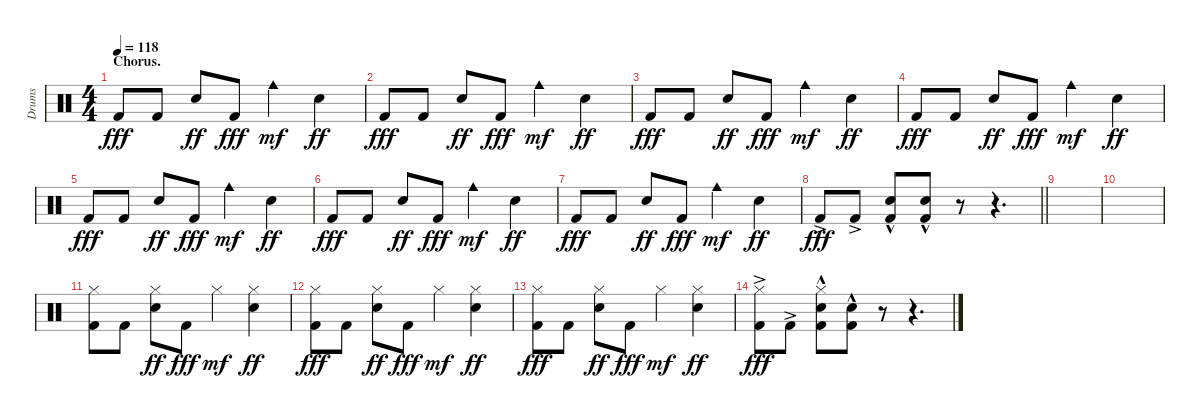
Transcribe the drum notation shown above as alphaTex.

\track ("Drums" "Drums") {instrument percussion}
\staff {score}
\articulation defaults
\ts (4 4)
\section ("" "Chorus.")
\tempo 118
\clef neutral
\ks c "Kick (hit) 2".8{dy fff} "Kick (hit) 2".8 "Snare (hit) 2".8{dy ff} "Kick (hit) 2".8{dy fff} "Cowbell medium (hit)".4{dy mf} "Snare (hit) 2".4{dy ff}
|
"Kick (hit) 2".8{dy fff} "Kick (hit) 2".8 "Snare (hit) 2".8{dy ff} "Kick (hit) 2".8{dy fff} "Cowbell medium (hit)".4{dy mf} "Snare (hit) 2".4{dy ff} |
"Kick (hit) 2".8{dy fff} "Kick (hit) 2".8 "Snare (hit) 2".8{dy ff} "Kick (hit) 2".8{dy fff} "Cowbell medium (hit)".4{dy mf} "Snare (hit) 2".4{dy ff} |
"Kick (hit) 2".8{dy fff} "Kick (hit) 2".8 "Snare (hit) 2".8{dy ff} "Kick (hit) 2".8{dy fff} "Cowbell medium (hit)".4{dy mf} "Snare (hit) 2".4{dy ff} |
"Kick (hit) 2".8{dy fff} "Kick (hit) 2".8 "Snare (hit) 2".8{dy ff} "Kick (hit) 2".8{dy fff} "Cowbell medium (hit)".4{dy mf} "Snare (hit) 2".4{dy ff} |
"Kick (hit) 2".8{dy fff} "Kick (hit) 2".8 "Snare (hit) 2".8{dy ff} "Kick (hit) 2".8{dy fff} "Cowbell medium (hit)".4{dy mf} "Snare (hit) 2".4{dy ff} |
"Kick (hit) 2".8{dy fff} "Kick (hit) 2".8 "Snare (hit) 2".8{dy ff} "Kick (hit) 2".8{dy fff} "Cowbell medium (hit)".4{dy mf} "Snare (hit) 2".4{dy ff} |
\barLineRight lightlight "Kick (hit) 2"{ac}.8{dy fff} "Kick (hit) 2"{ac}.8
("Snare (hit) 2" "Kick (hit) 2"{hac}).8 ("Snare (hit) 2"{hac} "Kick (hit) 2"{hac}).8 r.8 r.4{d} |
|
|
("Hi-Hat (closed)" "Kick (hit) 2").8 "Kick (hit) 2".8 ("Hi-Hat (closed)" "Snare (hit) 2").8{dy ff} "Kick (hit) 2".8{dy fff} "Hi-Hat (closed)".4{dy mf} ("Hi-Hat (closed)" "Snare (hit) 2").4{dy ff} |
("Hi-Hat (closed)" "Kick (hit) 2").8{dy fff} "Kick (hit) 2".8 ("Hi-Hat (closed)" "Snare (hit) 2").8{dy ff} "Kick (hit) 2".8{dy fff} "Hi-Hat (closed)".4{dy mf} ("Hi-Hat (closed)" "Snare (hit) 2").4{dy ff} |
("Hi-Hat (closed)" "Kick (hit) 2").8{dy fff} "Kick (hit) 2".8 ("Hi-Hat (closed)" "Snare (hit) 2").8{dy ff} "Kick (hit) 2".8{dy fff} "Hi-Hat (closed)".4{dy mf} ("Hi-Hat (closed)" "Snare (hit) 2").4{dy ff} |
("Hi-Hat (closed)" "Kick (hit) 2"{ac}).8{dy fff} "Kick (hit) 2"{ac}.8 ("Hi-Hat (closed)" "Snare (hit) 2" "Kick (hit) 2"{hac}).8 ("Snare (hit) 2"{hac} "Kick (hit) 2"{hac}).8 r.8 r.4{d}
